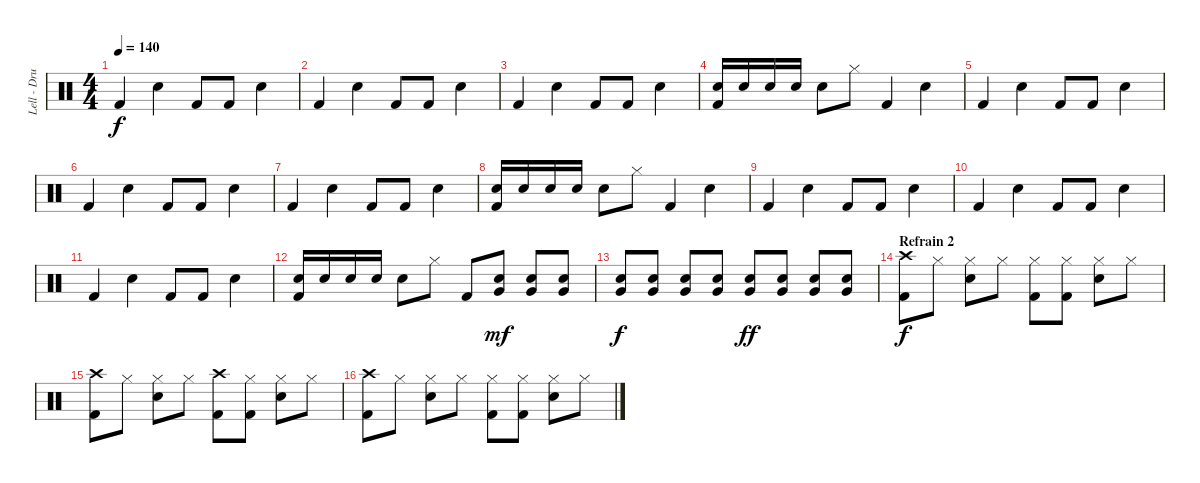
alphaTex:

\track ("Lell - Drums" "Lell - Dru") {instrument percussion}
\staff {score}
\articulation defaults
\ts (4 4)
\tempo 140
\clef neutral
\ks c "Kick (hit) 2".4{dy f} "Snare (hit) 2".4 "Kick (hit) 2".8 "Kick (hit) 2".8 "Snare (hit) 2".4
|
"Kick (hit) 2".4 "Snare (hit) 2".4 "Kick (hit) 2".8 "Kick (hit) 2".8 "Snare (hit) 2".4 |
"Kick (hit) 2".4 "Snare (hit) 2".4 "Kick (hit) 2".8 "Kick (hit) 2".8 "Snare (hit) 2".4 |
("Snare (hit) 2" "Kick (hit) 2").16 "Snare (hit) 2".16 "Snare (hit) 2".16 "Snare (hit) 2".16 "Snare (hit) 2".8 "Hi-Hat (closed)".8 "Kick (hit) 2".4 "Snare (hit) 2".4 |
"Kick (hit) 2".4 "Snare (hit) 2".4 "Kick (hit) 2".8 "Kick (hit) 2".8 "Snare (hit) 2".4 |
"Kick (hit) 2".4 "Snare (hit) 2".4 "Kick (hit) 2".8 "Kick (hit) 2".8 "Snare (hit) 2".4 |
"Kick (hit) 2".4 "Snare (hit) 2".4 "Kick (hit) 2".8 "Kick (hit) 2".8 "Snare (hit) 2".4 |
("Snare (hit) 2" "Kick (hit) 2").16 "Snare (hit) 2".16 "Snare (hit) 2".16 "Snare (hit) 2".16 "Snare (hit) 2".8 "Hi-Hat (closed)".8 "Kick (hit) 2".4 "Snare (hit) 2".4 |
"Kick (hit) 2".4 "Snare (hit) 2".4 "Kick (hit) 2".8 "Kick (hit) 2".8 "Snare (hit) 2".4 |
"Kick (hit) 2".4 "Snare (hit) 2".4 "Kick (hit) 2".8 "Kick (hit) 2".8 "Snare (hit) 2".4 |
"Kick (hit) 2".4 "Snare (hit) 2".4 "Kick (hit) 2".8 "Kick (hit) 2".8 "Snare (hit) 2".4 |
("Snare (hit) 2" "Kick (hit) 2").16 "Snare (hit) 2".16 "Snare (hit) 2".16 "Snare (hit) 2".16 "Snare (hit) 2".8 "Hi-Hat (closed)".8 "Kick (hit) 2".8 ("Very Low Tom (hit)" "Snare (hit) 2").8{dy mf} ("Very Low Tom (hit)" "Snare (hit) 2").8 ("Very Low Tom (hit)" "Snare (hit) 2").8 |
("Very Low Tom (hit)" "Snare (hit) 2").8{dy f} ("Very Low Tom (hit)" "Snare (hit) 2").8 ("Very Low Tom (hit)" "Snare (hit) 2").8 ("Very Low Tom (hit)" "Snare (hit) 2").8 ("Very Low Tom (hit)" "Snare (hit) 2").8{dy ff} ("Very Low Tom (hit)" "Snare (hit) 2").8 ("Very Low Tom (hit)" "Snare (hit) 2").8 ("Very Low Tom (hit)" "Snare (hit) 2").8 |
\section ("" "Refrain 2")
("Crash high (hit)" "Kick (hit) 2").8{dy f} "Hi-Hat (closed)".8 ("Hi-Hat (closed)" "Snare (hit) 2").8 "Hi-Hat (closed)".8 ("Hi-Hat (closed)" "Kick (hit) 2").8 ("Hi-Hat (closed)" "Kick (hit) 2").8 ("Hi-Hat (closed)" "Snare (hit) 2").8 "Hi-Hat (closed)".8 |
("Crash high (hit)" "Kick (hit) 2").8 "Hi-Hat (closed)".8 ("Hi-Hat (closed)" "Snare (hit) 2").8 "Hi-Hat (closed)".8 ("Crash high (hit)" "Kick (hit) 2").8 ("Hi-Hat (closed)" "Kick (hit) 2").8 ("Hi-Hat (closed)" "Snare (hit) 2").8 "Hi-Hat (closed)".8 |
("Crash high (hit)" "Kick (hit) 2").8 "Hi-Hat (closed)".8 ("Hi-Hat (closed)" "Snare (hit) 2").8 "Hi-Hat (closed)".8 ("Hi-Hat (closed)" "Kick (hit) 2").8 ("Hi-Hat (closed)" "Kick (hit) 2").8 ("Hi-Hat (closed)" "Snare (hit) 2").8 "Hi-Hat (closed)".8
